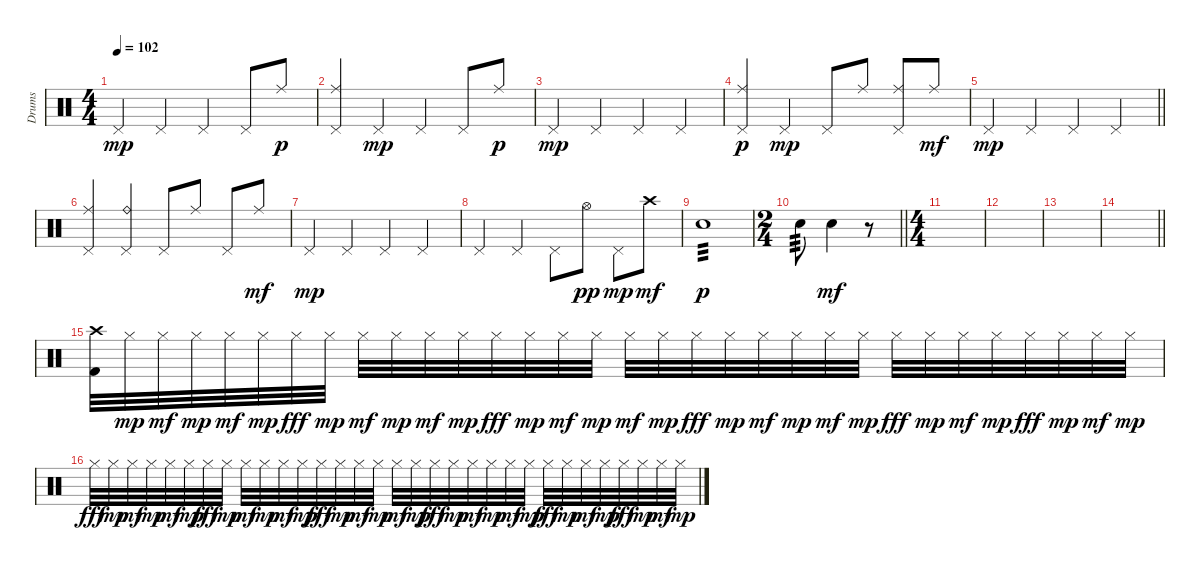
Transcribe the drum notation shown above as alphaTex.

\track ("Drums" "Drums") {instrument percussion}
\staff {score}
\articulation defaults
\ts (4 4)
\tempo 102
\clef neutral
\ks c "Pedal Hi-Hat (hit)".4{dy mp} "Pedal Hi-Hat (hit)".4 "Pedal Hi-Hat (hit)".4 "Pedal Hi-Hat (hit)".8 "Ride (middle)".8{dy p}
|
("Pedal Hi-Hat (hit)" "Ride (middle)").4 "Pedal Hi-Hat (hit)".4{dy mp} "Pedal Hi-Hat (hit)".4 "Pedal Hi-Hat (hit)".8 "Ride (middle)".8{dy p} |
"Pedal Hi-Hat (hit)".4{dy mp} "Pedal Hi-Hat (hit)".4 "Pedal Hi-Hat (hit)".4 "Pedal Hi-Hat (hit)".4 |
("Pedal Hi-Hat (hit)" "Ride (middle)").4{dy p} "Pedal Hi-Hat (hit)".4{dy mp} "Pedal Hi-Hat (hit)".8 "Ride (middle)".8 ("Pedal Hi-Hat (hit)" "Ride (middle)").8 "Ride (middle)".8{dy mf} |
\barLineRight lightlight "Pedal Hi-Hat (hit)".4{dy mp} "Pedal Hi-Hat (hit)".4 "Pedal Hi-Hat (hit)".4 "Pedal Hi-Hat (hit)".4
|
("Pedal Hi-Hat (hit)" "Ride (middle)").4 ("Pedal Hi-Hat (hit)" "Ride (bell)").4 "Pedal Hi-Hat (hit)".8 "Ride (middle)".8 "Pedal Hi-Hat (hit)".8 "Ride (middle)".8{dy mf} |
"Pedal Hi-Hat (hit)".4{dy mp} "Pedal Hi-Hat (hit)".4 "Pedal Hi-Hat (hit)".4 "Pedal Hi-Hat (hit)".4 |
"Pedal Hi-Hat (hit)".4 "Pedal Hi-Hat (hit)".4 "Pedal Hi-Hat (hit)".8 "Hi-Hat (open)".8{dy pp} "Pedal Hi-Hat (hit)".8{dy mp} "Crash high (hit)".8{dy mf} |
"Electric Snare (hit)".1{tp 3 dy p} |
\ts (2 4)
\barLineRight lightlight "Electric Snare (hit)".8{tp 3} "Electric Snare (hit)".4{dy mf}
r.8 |
\ts (4 4)
|
|
|
\barLineRight lightlight
|
("Crash high (hit)" "Kick (hit) 2").32 "Hi-Hat (closed)".32{dy mp} "Hi-Hat (closed)".32{dy mf} "Hi-Hat (closed)".32{dy mp} "Hi-Hat (closed)".32{dy mf} "Hi-Hat (closed)".32{dy mp} "Hi-Hat (closed)".32{dy fff} "Hi-Hat (closed)".32{dy mp} "Hi-Hat (closed)".32{dy mf} "Hi-Hat (closed)".32{dy mp} "Hi-Hat (closed)".32{dy mf} "Hi-Hat (closed)".32{dy mp} "Hi-Hat (closed)".32{dy fff} "Hi-Hat (closed)".32{dy mp} "Hi-Hat (closed)".32{dy mf} "Hi-Hat (closed)".32{dy mp} "Hi-Hat (closed)".32{dy mf} "Hi-Hat (closed)".32{dy mp} "Hi-Hat (closed)".32{dy fff} "Hi-Hat (closed)".32{dy mp} "Hi-Hat (closed)".32{dy mf} "Hi-Hat (closed)".32{dy mp} "Hi-Hat (closed)".32{dy mf} "Hi-Hat (closed)".32{dy mp} "Hi-Hat (closed)".32{dy fff} "Hi-Hat (closed)".32{dy mp} "Hi-Hat (closed)".32{dy mf} "Hi-Hat (closed)".32{dy mp} "Hi-Hat (closed)".32{dy fff} "Hi-Hat (closed)".32{dy mp} "Hi-Hat (closed)".32{dy mf} "Hi-Hat (closed)".32{dy mp} |
"Hi-Hat (closed)".32{dy fff} "Hi-Hat (closed)".32{dy mp} "Hi-Hat (closed)".32{dy mf} "Hi-Hat (closed)".32{dy mp} "Hi-Hat (closed)".32{dy mf} "Hi-Hat (closed)".32{dy mp} "Hi-Hat (closed)".32{dy fff} "Hi-Hat (closed)".32{dy mp} "Hi-Hat (closed)".32{dy mf} "Hi-Hat (closed)".32{dy mp} "Hi-Hat (closed)".32{dy mf} "Hi-Hat (closed)".32{dy mp} "Hi-Hat (closed)".32{dy fff} "Hi-Hat (closed)".32{dy mp} "Hi-Hat (closed)".32{dy mf} "Hi-Hat (closed)".32{dy mp} "Hi-Hat (closed)".32{dy mf} "Hi-Hat (closed)".32{dy mp} "Hi-Hat (closed)".32{dy fff} "Hi-Hat (closed)".32{dy mp} "Hi-Hat (closed)".32{dy mf} "Hi-Hat (closed)".32{dy mp} "Hi-Hat (closed)".32{dy mf} "Hi-Hat (closed)".32{dy mp} "Hi-Hat (closed)".32{dy fff} "Hi-Hat (closed)".32{dy mp} "Hi-Hat (closed)".32{dy mf} "Hi-Hat (closed)".32{dy mp} "Hi-Hat (closed)".32{dy fff} "Hi-Hat (closed)".32{dy mp} "Hi-Hat (closed)".32{dy mf} "Hi-Hat (closed)".32{dy mp}
